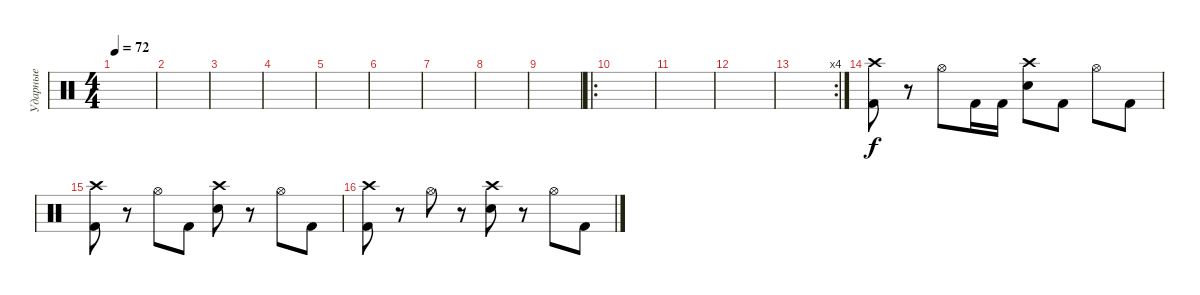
\track ("Ударные" "Ударные") {instrument percussion}
\staff {score}
\articulation defaults
\ts (4 4)
\tempo 72
\clef neutral
\ks c
|
|
|
|
|
|
|
|
|
\ro
|
|
|
\rc 4
|
("Crash high (hit)" "Kick (hit) 2").8 r.8 "Hi-Hat (open)".8 "Kick (hit) 2".16 "Kick (hit) 2".16 ("Crash high (hit)" "Electric Snare (hit)").8 "Kick (hit) 2".8 "Hi-Hat (open)".8 "Kick (hit) 2".8 |
("Crash high (hit)" "Kick (hit) 2").8 r.8 "Hi-Hat (open)".8 "Kick (hit) 2".8 ("Crash high (hit)" "Electric Snare (hit)").8 r.8 "Hi-Hat (open)".8 "Kick (hit) 2".8 |
("Crash high (hit)" "Kick (hit) 2").8 r.8 "Hi-Hat (open)".8 r.8 ("Crash high (hit)" "Electric Snare (hit)").8 r.8 "Hi-Hat (open)".8 "Kick (hit) 2".8
